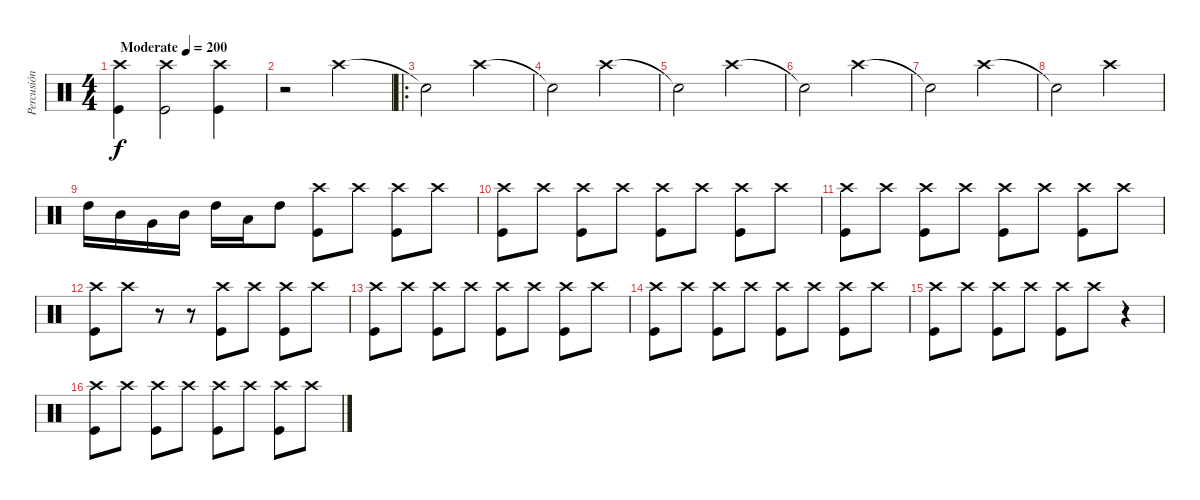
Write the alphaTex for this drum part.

\track ("Percusión" "Percusión") {instrument percussion}
\staff {score}
\articulation defaults
\ts (4 4)
\tempo (200 "Moderate")
\clef neutral
\ks c
("Crash high (hit)" "Kick (hit)").4{dy f} ("Crash high (hit)" "Kick (hit)").2 ("Crash high (hit)" "Kick (hit)").4 |
r.2 "Crash high (hit)".2 |
\ro "Snare (hit)"{t}.2 "Crash high (hit)".2
|
"Snare (hit)"{t}.2 "Crash high (hit)".2 |
"Snare (hit)"{t}.2 "Crash high (hit)".2 |
"Snare (hit)"{t}.2 "Crash high (hit)".2 |
"Snare (hit)"{t}.2 "Crash high (hit)".2 |
"Snare (hit)"{t}.2 "Crash high (hit)".2 |
"High Tom (hit)".16 "Mid Tom (hit)".16 "Very Low Tom (hit)".16 "Mid Tom (hit)".16 "High Tom (hit)".16 "Low Floor Tom (hit)".16 "High Tom (hit)".8 ("Crash high (hit)" "Kick (hit)").8 "Crash high (hit)".8 ("Crash high (hit)" "Kick (hit)").8 "Crash high (hit)".8 |
("Crash high (hit)" "Kick (hit)").8 "Crash high (hit)".8 ("Crash high (hit)" "Kick (hit)").8 "Crash high (hit)".8 ("Crash high (hit)" "Kick (hit)").8 "Crash high (hit)".8 ("Crash high (hit)" "Kick (hit)").8 "Crash high (hit)".8 |
("Crash high (hit)" "Kick (hit)").8 "Crash high (hit)".8 ("Crash high (hit)" "Kick (hit)").8 "Crash high (hit)".8 ("Crash high (hit)" "Kick (hit)").8 "Crash high (hit)".8 ("Crash high (hit)" "Kick (hit)").8 "Crash high (hit)".8 |
("Crash high (hit)" "Kick (hit)").8 "Crash high (hit)".8 r.8 r.8 ("Crash high (hit)" "Kick (hit)").8 "Crash high (hit)".8 ("Crash high (hit)" "Kick (hit)").8 "Crash high (hit)".8 |
("Crash high (hit)" "Kick (hit)").8 "Crash high (hit)".8 ("Crash high (hit)" "Kick (hit)").8 "Crash high (hit)".8 ("Crash high (hit)" "Kick (hit)").8 "Crash high (hit)".8 ("Crash high (hit)" "Kick (hit)").8 "Crash high (hit)".8 |
("Crash high (hit)" "Kick (hit)").8 "Crash high (hit)".8 ("Crash high (hit)" "Kick (hit)").8 "Crash high (hit)".8 ("Crash high (hit)" "Kick (hit)").8 "Crash high (hit)".8 ("Crash high (hit)" "Kick (hit)").8 "Crash high (hit)".8 |
("Crash high (hit)" "Kick (hit)").8 "Crash high (hit)".8 ("Crash high (hit)" "Kick (hit)").8 "Crash high (hit)".8 ("Crash high (hit)" "Kick (hit)").8 "Crash high (hit)".8 r.4 |
("Crash high (hit)" "Kick (hit)").8 "Crash high (hit)".8 ("Crash high (hit)" "Kick (hit)").8 "Crash high (hit)".8 ("Crash high (hit)" "Kick (hit)").8 "Crash high (hit)".8 ("Crash high (hit)" "Kick (hit)").8 "Crash high (hit)".8
